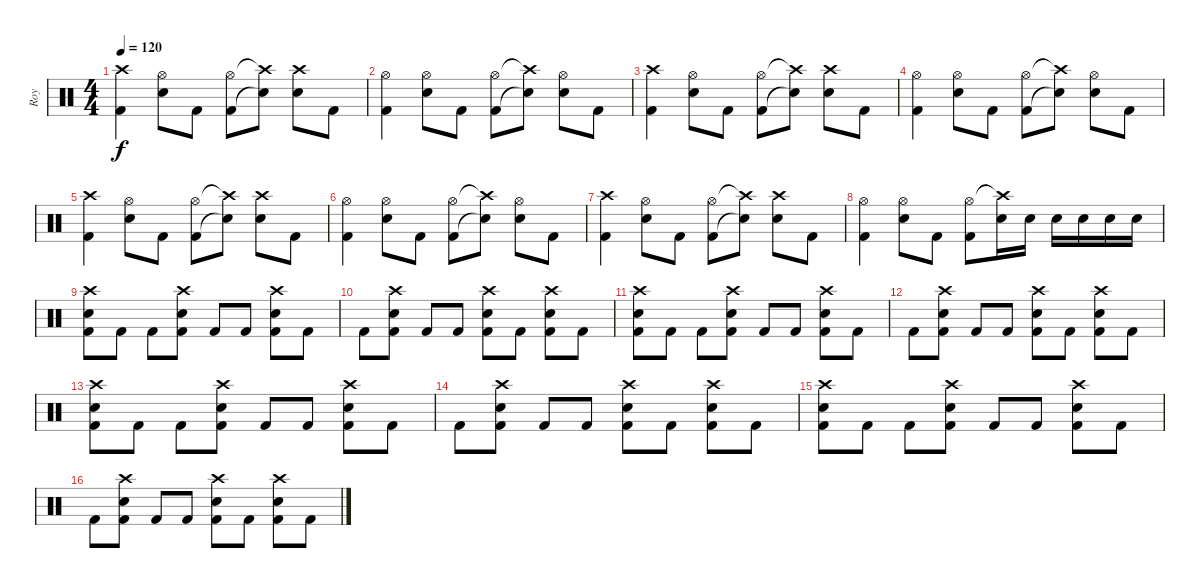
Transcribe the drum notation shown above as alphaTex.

\track ("Roy" "Roy") {instrument percussion}
\staff {score}
\articulation defaults
\ts (4 4)
\tempo 120
\clef neutral
\ks c
("Crash high (hit)" "Kick (hit) 2").4{dy f} ("Hi-Hat (open)" "Electric Snare (hit)").8 "Kick (hit) 2".8 ("Hi-Hat (open)" "Kick (hit) 2").8 ("Crash high (hit)"{t} "Electric Snare (hit)"{t}).8 ("Crash high (hit)" "Electric Snare (hit)").8 "Kick (hit) 2".8 |
("Hi-Hat (open)" "Kick (hit) 2").4 ("Hi-Hat (open)" "Electric Snare (hit)").8 "Kick (hit) 2".8 ("Hi-Hat (open)" "Kick (hit) 2").8 ("Crash high (hit)"{t} "Electric Snare (hit)"{t}).8 ("Hi-Hat (open)" "Electric Snare (hit)").8 "Kick (hit) 2".8 |
("Crash high (hit)" "Kick (hit) 2").4 ("Hi-Hat (open)" "Electric Snare (hit)").8 "Kick (hit) 2".8 ("Hi-Hat (open)" "Kick (hit) 2").8 ("Crash high (hit)"{t} "Electric Snare (hit)"{t}).8 ("Crash high (hit)" "Electric Snare (hit)").8 "Kick (hit) 2".8 |
("Hi-Hat (open)" "Kick (hit) 2").4 ("Hi-Hat (open)" "Electric Snare (hit)").8 "Kick (hit) 2".8 ("Hi-Hat (open)" "Kick (hit) 2").8 ("Crash high (hit)"{t} "Electric Snare (hit)"{t}).8 ("Hi-Hat (open)" "Electric Snare (hit)").8 "Kick (hit) 2".8 |
("Crash high (hit)" "Kick (hit) 2").4 ("Hi-Hat (open)" "Electric Snare (hit)").8 "Kick (hit) 2".8 ("Hi-Hat (open)" "Kick (hit) 2").8 ("Crash high (hit)"{t} "Electric Snare (hit)"{t}).8 ("Crash high (hit)" "Electric Snare (hit)").8 "Kick (hit) 2".8 |
("Hi-Hat (open)" "Kick (hit) 2").4 ("Hi-Hat (open)" "Electric Snare (hit)").8 "Kick (hit) 2".8 ("Hi-Hat (open)" "Kick (hit) 2").8 ("Crash high (hit)"{t} "Electric Snare (hit)"{t}).8 ("Hi-Hat (open)" "Electric Snare (hit)").8 "Kick (hit) 2".8 |
("Crash high (hit)" "Kick (hit) 2").4 ("Hi-Hat (open)" "Electric Snare (hit)").8 "Kick (hit) 2".8 ("Hi-Hat (open)" "Kick (hit) 2").8 ("Crash high (hit)"{t} "Electric Snare (hit)"{t}).8 ("Crash high (hit)" "Electric Snare (hit)").8 "Kick (hit) 2".8 |
("Hi-Hat (open)" "Kick (hit) 2").4 ("Hi-Hat (open)" "Electric Snare (hit)").8 "Kick (hit) 2".8 ("Hi-Hat (open)" "Kick (hit) 2").8 ("Crash high (hit)"{t} "Electric Snare (hit)").16 "Electric Snare (hit)".16 "Electric Snare (hit)".16 "Electric Snare (hit)".16 "Electric Snare (hit)".16 "Electric Snare (hit)".16 |
("Crash high (hit)" "Electric Snare (hit)" "Kick (hit) 2").8 "Kick (hit) 2".8 "Kick (hit) 2".8 ("Crash high (hit)" "Electric Snare (hit)" "Kick (hit) 2").8 "Kick (hit) 2".8 "Kick (hit) 2".8 ("Crash high (hit)" "Electric Snare (hit)" "Kick (hit) 2").8 "Kick (hit) 2".8 |
"Kick (hit) 2".8 ("Crash high (hit)" "Electric Snare (hit)" "Kick (hit) 2").8 "Kick (hit) 2".8 "Kick (hit) 2".8 ("Crash high (hit)" "Electric Snare (hit)" "Kick (hit) 2").8 "Kick (hit) 2".8 ("Crash high (hit)" "Electric Snare (hit)" "Kick (hit) 2").8 "Kick (hit) 2".8 |
("Crash high (hit)" "Electric Snare (hit)" "Kick (hit) 2").8 "Kick (hit) 2".8 "Kick (hit) 2".8 ("Crash high (hit)" "Electric Snare (hit)" "Kick (hit) 2").8 "Kick (hit) 2".8 "Kick (hit) 2".8 ("Crash high (hit)" "Electric Snare (hit)" "Kick (hit) 2").8 "Kick (hit) 2".8 |
"Kick (hit) 2".8 ("Crash high (hit)" "Electric Snare (hit)" "Kick (hit) 2").8 "Kick (hit) 2".8 "Kick (hit) 2".8 ("Crash high (hit)" "Electric Snare (hit)" "Kick (hit) 2").8 "Kick (hit) 2".8 ("Crash high (hit)" "Electric Snare (hit)" "Kick (hit) 2").8 "Kick (hit) 2".8 |
("Crash high (hit)" "Electric Snare (hit)" "Kick (hit) 2").8 "Kick (hit) 2".8 "Kick (hit) 2".8 ("Crash high (hit)" "Electric Snare (hit)" "Kick (hit) 2").8 "Kick (hit) 2".8 "Kick (hit) 2".8 ("Crash high (hit)" "Electric Snare (hit)" "Kick (hit) 2").8 "Kick (hit) 2".8 |
"Kick (hit) 2".8 ("Crash high (hit)" "Electric Snare (hit)" "Kick (hit) 2").8 "Kick (hit) 2".8 "Kick (hit) 2".8 ("Crash high (hit)" "Electric Snare (hit)" "Kick (hit) 2").8 "Kick (hit) 2".8 ("Crash high (hit)" "Electric Snare (hit)" "Kick (hit) 2").8 "Kick (hit) 2".8 |
("Crash high (hit)" "Electric Snare (hit)" "Kick (hit) 2").8 "Kick (hit) 2".8 "Kick (hit) 2".8 ("Crash high (hit)" "Electric Snare (hit)" "Kick (hit) 2").8 "Kick (hit) 2".8 "Kick (hit) 2".8 ("Crash high (hit)" "Electric Snare (hit)" "Kick (hit) 2").8 "Kick (hit) 2".8 |
"Kick (hit) 2".8 ("Crash high (hit)" "Electric Snare (hit)" "Kick (hit) 2").8 "Kick (hit) 2".8 "Kick (hit) 2".8 ("Crash high (hit)" "Electric Snare (hit)" "Kick (hit) 2").8 "Kick (hit) 2".8 ("Crash high (hit)" "Electric Snare (hit)" "Kick (hit) 2").8 "Kick (hit) 2".8
